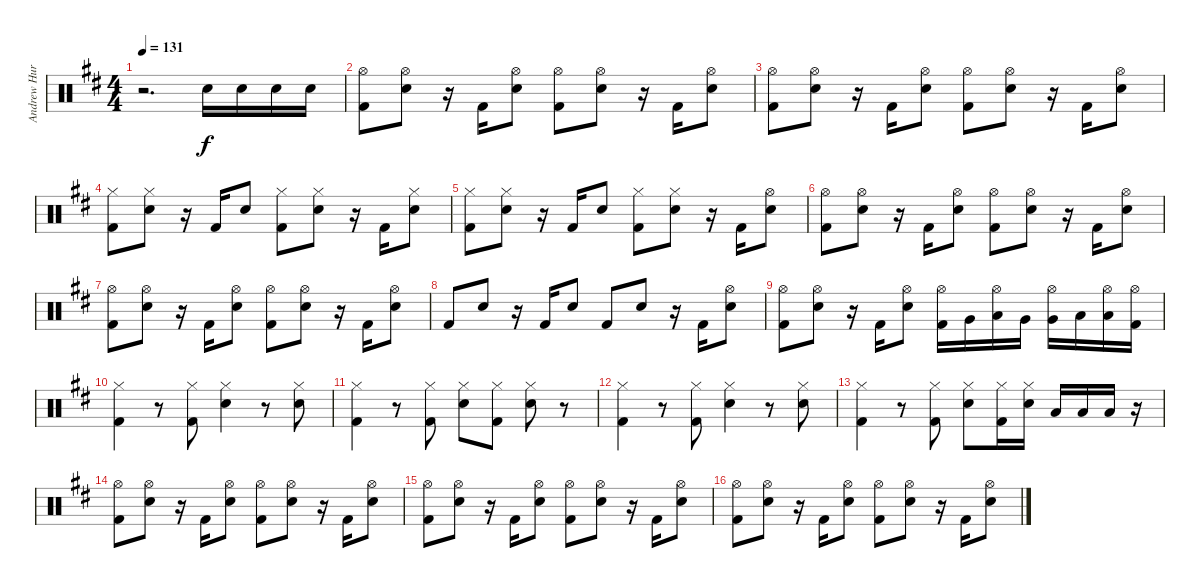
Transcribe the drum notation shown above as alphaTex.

\track ("Andrew Hurley" "Andrew Hur") {instrument percussion}
\staff {score}
\articulation defaults
\ts (4 4)
\tempo 131
\clef neutral
\ks d
r.2{d dy f} "Electric Snare (hit)".16 "Electric Snare (hit)".16 "Electric Snare (hit)".16 "Electric Snare (hit)".16 |
("Hi-Hat (open)" "Kick (hit) 2").8 ("Hi-Hat (open)" "Electric Snare (hit)").8 r.16 "Kick (hit) 2".16 ("Hi-Hat (open)" "Electric Snare (hit)").8 ("Hi-Hat (open)" "Kick (hit) 2").8 ("Hi-Hat (open)" "Electric Snare (hit)").8 r.16 "Kick (hit) 2".16 ("Hi-Hat (open)" "Electric Snare (hit)").8 |
("Hi-Hat (open)" "Kick (hit) 2").8 ("Hi-Hat (open)" "Electric Snare (hit)").8 r.16 "Kick (hit) 2".16 ("Hi-Hat (open)" "Electric Snare (hit)").8 ("Hi-Hat (open)" "Kick (hit) 2").8 ("Hi-Hat (open)" "Electric Snare (hit)").8 r.16 "Kick (hit) 2".16 ("Hi-Hat (open)" "Electric Snare (hit)").8 |
("Hi-Hat (closed)" "Kick (hit) 2").8 ("Hi-Hat (closed)" "Electric Snare (hit)").8 r.16 "Kick (hit) 2".16 "Electric Snare (hit)".8 ("Hi-Hat (closed)" "Kick (hit) 2").8 ("Hi-Hat (closed)" "Electric Snare (hit)").8 r.16 "Kick (hit) 2".16 ("Hi-Hat (closed)" "Electric Snare (hit)").8 |
("Hi-Hat (closed)" "Kick (hit) 2").8 ("Hi-Hat (closed)" "Electric Snare (hit)").8 r.16 "Kick (hit) 2".16 "Electric Snare (hit)".8 ("Hi-Hat (closed)" "Kick (hit) 2").8 ("Hi-Hat (closed)" "Electric Snare (hit)").8 r.16 "Kick (hit) 2".16 ("Hi-Hat (open)" "Electric Snare (hit)").8 |
("Hi-Hat (open)" "Kick (hit) 2").8 ("Hi-Hat (open)" "Electric Snare (hit)").8 r.16 "Kick (hit) 2".16 ("Hi-Hat (open)" "Electric Snare (hit)").8 ("Hi-Hat (open)" "Kick (hit) 2").8 ("Hi-Hat (open)" "Electric Snare (hit)").8 r.16 "Kick (hit) 2".16 ("Hi-Hat (open)" "Electric Snare (hit)").8 |
("Hi-Hat (open)" "Kick (hit) 2").8 ("Hi-Hat (open)" "Electric Snare (hit)").8 r.16 "Kick (hit) 2".16 ("Hi-Hat (open)" "Electric Snare (hit)").8 ("Hi-Hat (open)" "Kick (hit) 2").8 ("Hi-Hat (open)" "Electric Snare (hit)").8 r.16 "Kick (hit) 2".16 ("Hi-Hat (open)" "Electric Snare (hit)").8 |
"Kick (hit) 2".8 "Electric Snare (hit)".8 r.16 "Kick (hit) 2".16 "Electric Snare (hit)".8 "Kick (hit) 2".8 "Electric Snare (hit)".8 r.16 "Kick (hit) 2".16 ("Hi-Hat (open)" "Electric Snare (hit)").8 |
("Hi-Hat (open)" "Kick (hit) 2").8 ("Hi-Hat (open)" "Electric Snare (hit)").8 r.16 "Kick (hit) 2".16 ("Hi-Hat (open)" "Electric Snare (hit)").8 ("Hi-Hat (open)" "Kick (hit) 2").16 "Very Low Tom (hit)".16 ("Hi-Hat (open)" "Low Tom (hit)").16 "Very Low Tom (hit)".16 ("Hi-Hat (open)" "Very Low Tom (hit)").16 "Low Floor Tom (hit)".16 ("Hi-Hat (open)" "Low Floor Tom (hit)").16 ("Hi-Hat (open)" "Kick (hit) 2").16 |
("Hi-Hat (closed)" "Kick (hit) 2").4 r.8 ("Hi-Hat (closed)" "Kick (hit) 2").8 ("Hi-Hat (closed)" "Electric Snare (hit)").4 r.8 ("Hi-Hat (closed)" "Electric Snare (hit)").8 |
("Hi-Hat (closed)" "Kick (hit) 2").4 r.8 ("Hi-Hat (closed)" "Kick (hit) 2").8 ("Hi-Hat (closed)" "Electric Snare (hit)").8 ("Hi-Hat (closed)" "Kick (hit) 2").8 ("Hi-Hat (closed)" "Electric Snare (hit)").8 r.8 |
("Hi-Hat (closed)" "Kick (hit) 2").4 r.8 ("Hi-Hat (closed)" "Kick (hit) 2").8 ("Hi-Hat (closed)" "Electric Snare (hit)").4 r.8 ("Hi-Hat (closed)" "Electric Snare (hit)").8 |
("Hi-Hat (closed)" "Kick (hit) 2").4 r.8 ("Hi-Hat (closed)" "Kick (hit) 2").8 ("Hi-Hat (closed)" "Electric Snare (hit)").8 ("Hi-Hat (closed)" "Kick (hit) 2").16 ("Hi-Hat (closed)" "Electric Snare (hit)").16 "Low Tom (hit)".16 "Low Tom (hit)".16 "Low Floor Tom (hit)".16 r.16 |
("Hi-Hat (open)" "Kick (hit) 2").8 ("Hi-Hat (open)" "Electric Snare (hit)").8 r.16 "Kick (hit) 2".16 ("Hi-Hat (open)" "Electric Snare (hit)").8 ("Hi-Hat (open)" "Kick (hit) 2").8 ("Hi-Hat (open)" "Electric Snare (hit)").8 r.16 "Kick (hit) 2".16 ("Hi-Hat (open)" "Electric Snare (hit)").8 |
("Hi-Hat (open)" "Kick (hit) 2").8 ("Hi-Hat (open)" "Electric Snare (hit)").8 r.16 "Kick (hit) 2".16 ("Hi-Hat (open)" "Electric Snare (hit)").8 ("Hi-Hat (open)" "Kick (hit) 2").8 ("Hi-Hat (open)" "Electric Snare (hit)").8 r.16 "Kick (hit) 2".16 ("Hi-Hat (open)" "Electric Snare (hit)").8 |
("Hi-Hat (open)" "Kick (hit) 2").8 ("Hi-Hat (open)" "Electric Snare (hit)").8 r.16 "Kick (hit) 2".16 ("Hi-Hat (open)" "Electric Snare (hit)").8 ("Hi-Hat (open)" "Kick (hit) 2").8 ("Hi-Hat (open)" "Electric Snare (hit)").8 r.16 "Kick (hit) 2".16 ("Hi-Hat (open)" "Electric Snare (hit)").8
